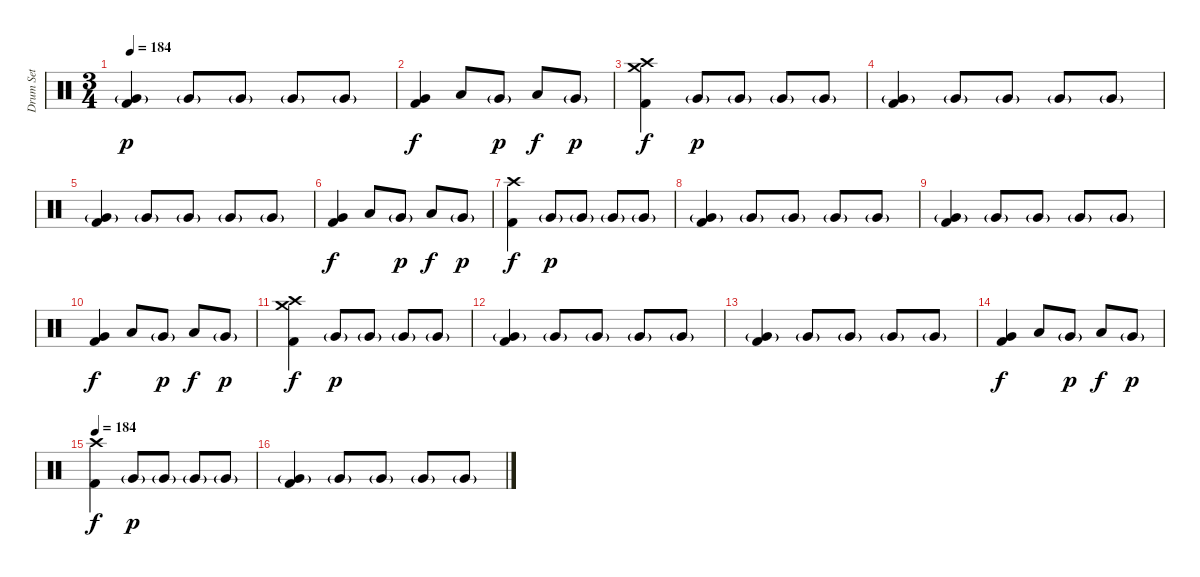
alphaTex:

\track ("Drum Set" "Drum Set") {instrument percussion}
\staff {score}
\articulation defaults
\ts (3 4)
\tempo 184
\clef neutral
\ks c
("Very Low Tom (hit)"{g} "Kick (hit) 2").4{dy p} "Very Low Tom (hit)"{g}.8 "Very Low Tom (hit)"{g}.8 "Very Low Tom (hit)"{g}.8 "Very Low Tom (hit)"{g}.8 |
("Very Low Tom (hit)" "Kick (hit) 2").4{dy f} "Low Tom (hit)".8 "Very Low Tom (hit)"{g}.8{dy p} "Low Floor Tom (hit)".8{dy f} "Very Low Tom (hit)"{g}.8{dy p} |
("Crash high (hit)" "Crash medium (hit)" "Kick (hit) 2").4{dy f} "Very Low Tom (hit)"{g}.8{dy p} "Very Low Tom (hit)"{g}.8 "Very Low Tom (hit)"{g}.8 "Very Low Tom (hit)"{g}.8 |
("Very Low Tom (hit)"{g} "Kick (hit) 2").4 "Very Low Tom (hit)"{g}.8 "Very Low Tom (hit)"{g}.8 "Very Low Tom (hit)"{g}.8 "Very Low Tom (hit)"{g}.8 |
("Very Low Tom (hit)"{g} "Kick (hit) 2").4 "Very Low Tom (hit)"{g}.8 "Very Low Tom (hit)"{g}.8 "Very Low Tom (hit)"{g}.8 "Very Low Tom (hit)"{g}.8 |
("Very Low Tom (hit)" "Kick (hit) 2").4{dy f} "Low Tom (hit)".8 "Very Low Tom (hit)"{g}.8{dy p} "Low Floor Tom (hit)".8{dy f} "Very Low Tom (hit)"{g}.8{dy p} |
("Crash high (hit)" "Kick (hit) 2").4{dy f} "Very Low Tom (hit)"{g}.8{dy p} "Very Low Tom (hit)"{g}.8 "Very Low Tom (hit)"{g}.8 "Very Low Tom (hit)"{g}.8 |
("Very Low Tom (hit)"{g} "Kick (hit) 2").4 "Very Low Tom (hit)"{g}.8 "Very Low Tom (hit)"{g}.8 "Very Low Tom (hit)"{g}.8 "Very Low Tom (hit)"{g}.8 |
("Very Low Tom (hit)"{g} "Kick (hit) 2").4 "Very Low Tom (hit)"{g}.8 "Very Low Tom (hit)"{g}.8 "Very Low Tom (hit)"{g}.8 "Very Low Tom (hit)"{g}.8 |
("Very Low Tom (hit)" "Kick (hit) 2").4{dy f} "Low Tom (hit)".8 "Very Low Tom (hit)"{g}.8{dy p} "Low Floor Tom (hit)".8{dy f} "Very Low Tom (hit)"{g}.8{dy p} |
("Crash high (hit)" "Crash medium (hit)" "Kick (hit) 2").4{dy f} "Very Low Tom (hit)"{g}.8{dy p} "Very Low Tom (hit)"{g}.8 "Very Low Tom (hit)"{g}.8 "Very Low Tom (hit)"{g}.8 |
("Very Low Tom (hit)"{g} "Kick (hit) 2").4 "Very Low Tom (hit)"{g}.8 "Very Low Tom (hit)"{g}.8 "Very Low Tom (hit)"{g}.8 "Very Low Tom (hit)"{g}.8 |
("Very Low Tom (hit)"{g} "Kick (hit) 2").4 "Very Low Tom (hit)"{g}.8 "Very Low Tom (hit)"{g}.8 "Very Low Tom (hit)"{g}.8 "Very Low Tom (hit)"{g}.8 |
("Very Low Tom (hit)" "Kick (hit) 2").4{dy f} "Low Tom (hit)".8 "Very Low Tom (hit)"{g}.8{dy p} "Low Floor Tom (hit)".8{dy f} "Very Low Tom (hit)"{g}.8{dy p} |
\tempo 184
("Crash high (hit)" "Kick (hit) 2").4{dy f} "Very Low Tom (hit)"{g}.8{dy p} "Very Low Tom (hit)"{g}.8 "Very Low Tom (hit)"{g}.8 "Very Low Tom (hit)"{g}.8 |
("Very Low Tom (hit)"{g} "Kick (hit) 2").4 "Very Low Tom (hit)"{g}.8 "Very Low Tom (hit)"{g}.8 "Very Low Tom (hit)"{g}.8 "Very Low Tom (hit)"{g}.8
